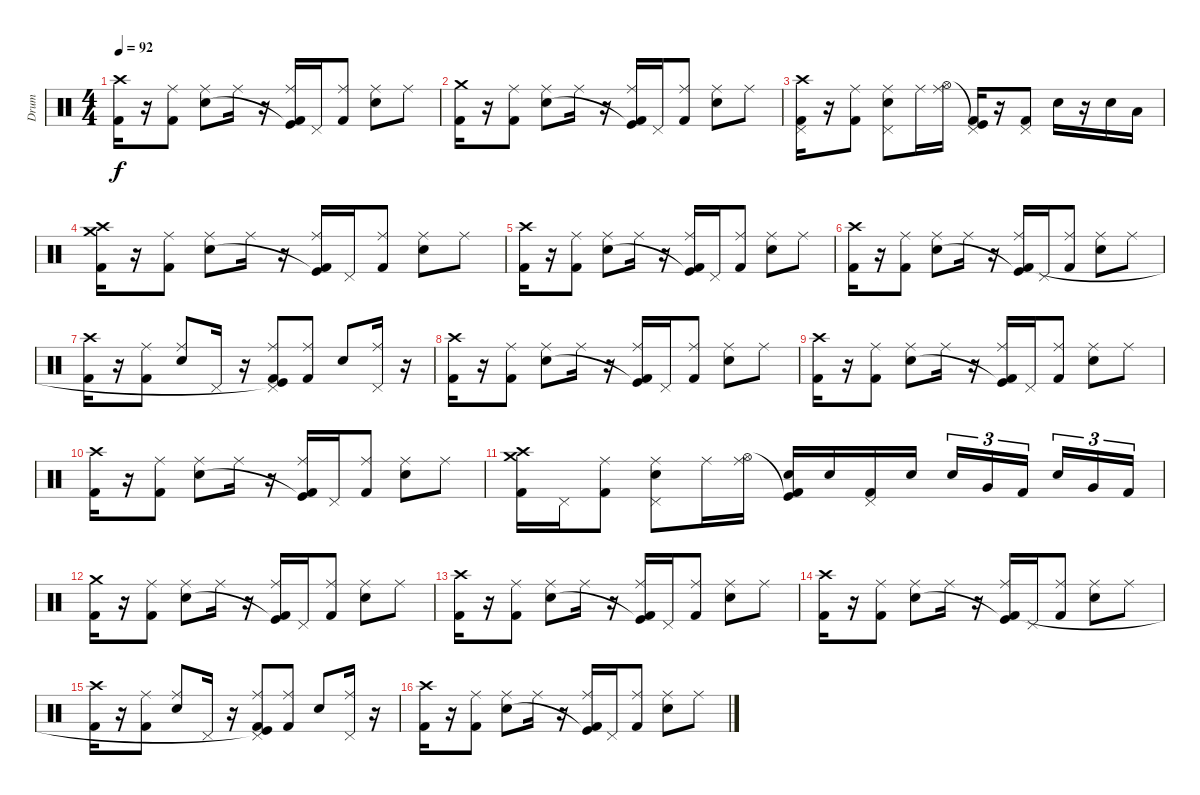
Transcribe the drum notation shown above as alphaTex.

\track ("Drum" "Drum") {instrument percussion}
\staff {score}
\articulation defaults
\ts (4 4)
\tempo 92
\clef neutral
\ks c
("Crash high (hit)" "Kick (hit) 2").16{dy f} r.16 ("Ride (middle)" "Kick (hit) 2").8 ("Ride (middle)" "Snare (hit) 2").8 "Ride (middle)".16 r.16 ("Ride (middle)" "Kick (hit)"{t} "Kick (hit) 2").16 "Pedal Hi-Hat (hit)".16 ("Ride (middle)" "Kick (hit) 2").8 ("Ride (middle)" "Snare (hit) 2").8 "Ride (middle)".8 |
("Crash medium (hit)" "Kick (hit) 2").16 r.16 ("Ride (middle)" "Kick (hit) 2").8 ("Ride (middle)" "Snare (hit) 2").8 "Ride (middle)".16 r.16 ("Ride (middle)" "Kick (hit)"{t} "Kick (hit) 2").16 "Pedal Hi-Hat (hit)".16 ("Ride (middle)" "Kick (hit) 2").8 ("Ride (middle)" "Snare (hit) 2").8 "Ride (middle)".8 |
("Crash high (hit)" "Pedal Hi-Hat (hit)" "Kick (hit) 2").16 r.16 ("Ride (middle)" "Kick (hit) 2").8 ("Ride (middle)" "Snare (hit) 2" "Pedal Hi-Hat (hit)").8 "Ride (middle)".16 ("Ride (middle)" "Hi-Hat (open)").16 ("Pedal Hi-Hat (hit)" "Kick (hit)"{t} "Kick (hit) 2").16 r.16 ("Pedal Hi-Hat (hit)" "Kick (hit) 2").8 "Snare (hit) 2".16 r.16 "Snare (hit) 2".16 "Low Tom (hit)".16 |
("Crash high (hit)" "Crash medium (hit)" "Kick (hit) 2").16 r.16 ("Ride (middle)" "Kick (hit) 2").8 ("Ride (middle)" "Snare (hit) 2").8 "Ride (middle)".16 r.16 ("Ride (middle)" "Kick (hit)"{t} "Kick (hit) 2").16 "Pedal Hi-Hat (hit)".16 ("Ride (middle)" "Kick (hit) 2").8 ("Ride (middle)" "Snare (hit) 2").8 "Ride (middle)".8 |
("Crash high (hit)" "Kick (hit) 2").16 r.16 ("Ride (middle)" "Kick (hit) 2").8 ("Ride (middle)" "Snare (hit) 2").8 "Ride (middle)".16 r.16 ("Ride (middle)" "Kick (hit)"{t} "Kick (hit) 2").16 "Pedal Hi-Hat (hit)".16 ("Ride (middle)" "Kick (hit) 2").8 ("Ride (middle)" "Snare (hit) 2").8 "Ride (middle)".8 |
("Crash high (hit)" "Kick (hit) 2").16 r.16 ("Ride (middle)" "Kick (hit) 2").8 ("Ride (middle)" "Snare (hit) 2").8 "Ride (middle)".16 r.16 ("Ride (middle)" "Kick (hit)"{t} "Kick (hit) 2").16 "Pedal Hi-Hat (hit)".16 ("Ride (middle)" "Kick (hit) 2").8 ("Ride (middle)" "Snare (hit) 2").8 "Ride (middle)".8 |
("Crash high (hit)" "Kick (hit) 2").16 r.16 ("Ride (middle)" "Kick (hit) 2").8 ("Ride (middle)" "Snare (hit) 2").8 "Pedal Hi-Hat (hit)".16 r.16 ("Ride (middle)" "Pedal Hi-Hat (hit)" "Kick (hit)"{t} "Kick (hit) 2").8 ("Ride (middle)" "Kick (hit) 2").8 "Snare (hit) 2".8 ("Ride (middle)" "Pedal Hi-Hat (hit)").16 r.16 |
("Crash high (hit)" "Kick (hit) 2").16 r.16 ("Ride (middle)" "Kick (hit) 2").8 ("Ride (middle)" "Snare (hit) 2").8 "Ride (middle)".16 r.16 ("Ride (middle)" "Kick (hit)"{t} "Kick (hit) 2").16 "Pedal Hi-Hat (hit)".16 ("Ride (middle)" "Kick (hit) 2").8 ("Ride (middle)" "Snare (hit) 2").8 "Ride (middle)".8 |
("Crash high (hit)" "Kick (hit) 2").16 r.16 ("Ride (middle)" "Kick (hit) 2").8 ("Ride (middle)" "Snare (hit) 2").8 "Ride (middle)".16 r.16 ("Ride (middle)" "Kick (hit)"{t} "Kick (hit) 2").16 "Pedal Hi-Hat (hit)".16 ("Ride (middle)" "Kick (hit) 2").8 ("Ride (middle)" "Snare (hit) 2").8 "Ride (middle)".8 |
("Crash high (hit)" "Kick (hit) 2").16 r.16 ("Ride (middle)" "Kick (hit) 2").8 ("Ride (middle)" "Snare (hit) 2").8 "Ride (middle)".16 r.16 ("Ride (middle)" "Kick (hit)"{t} "Kick (hit) 2").16 "Pedal Hi-Hat (hit)".16 ("Ride (middle)" "Kick (hit) 2").8 ("Ride (middle)" "Snare (hit) 2").8 "Ride (middle)".8 |
("Crash high (hit)" "Crash medium (hit)" "Kick (hit) 2").16 "Pedal Hi-Hat (hit)".16 ("Ride (middle)" "Kick (hit) 2").8 ("Ride (middle)" "Snare (hit) 2" "Pedal Hi-Hat (hit)").8 "Ride (middle)".16 ("Ride (middle)" "Hi-Hat (open)").16 ("Snare (hit) 2" "Kick (hit)"{t} "Kick (hit) 2").16 "Snare (hit) 2".16 ("Pedal Hi-Hat (hit)" "Kick (hit) 2").16 "Snare (hit) 2".16 "Snare (hit) 2".16{tu (3 2)} "Very Low Tom (hit)".16{tu (3 2)} "Kick (hit) 2".16{tu (3 2) beam splitsecondary} "Snare (hit) 2".16{tu (3 2)} "Very Low Tom (hit)".16{tu (3 2)} "Kick (hit) 2".16{tu (3 2)} |
("Crash medium (hit)" "Kick (hit) 2").16 r.16 ("Ride (middle)" "Kick (hit) 2").8 ("Ride (middle)" "Snare (hit) 2").8 "Ride (middle)".16 r.16 ("Ride (middle)" "Kick (hit)"{t} "Kick (hit) 2").16 "Pedal Hi-Hat (hit)".16 ("Ride (middle)" "Kick (hit) 2").8 ("Ride (middle)" "Snare (hit) 2").8 "Ride (middle)".8 |
("Crash high (hit)" "Kick (hit) 2").16 r.16 ("Ride (middle)" "Kick (hit) 2").8 ("Ride (middle)" "Snare (hit) 2").8 "Ride (middle)".16 r.16 ("Ride (middle)" "Kick (hit)"{t} "Kick (hit) 2").16 "Pedal Hi-Hat (hit)".16 ("Ride (middle)" "Kick (hit) 2").8 ("Ride (middle)" "Snare (hit) 2").8 "Ride (middle)".8 |
("Crash high (hit)" "Kick (hit) 2").16 r.16 ("Ride (middle)" "Kick (hit) 2").8 ("Ride (middle)" "Snare (hit) 2").8 "Ride (middle)".16 r.16 ("Ride (middle)" "Kick (hit)"{t} "Kick (hit) 2").16 "Pedal Hi-Hat (hit)".16 ("Ride (middle)" "Kick (hit) 2").8 ("Ride (middle)" "Snare (hit) 2").8 "Ride (middle)".8 |
("Crash high (hit)" "Kick (hit) 2").16 r.16 ("Ride (middle)" "Kick (hit) 2").8 ("Ride (middle)" "Snare (hit) 2").8 "Pedal Hi-Hat (hit)".16 r.16 ("Ride (middle)" "Pedal Hi-Hat (hit)" "Kick (hit)"{t} "Kick (hit) 2").8 ("Ride (middle)" "Kick (hit) 2").8 "Snare (hit) 2".8 ("Ride (middle)" "Pedal Hi-Hat (hit)").16 r.16 |
("Crash high (hit)" "Kick (hit) 2").16 r.16 ("Ride (middle)" "Kick (hit) 2").8 ("Ride (middle)" "Snare (hit) 2").8 "Ride (middle)".16 r.16 ("Ride (middle)" "Kick (hit)"{t} "Kick (hit) 2").16 "Pedal Hi-Hat (hit)".16 ("Ride (middle)" "Kick (hit) 2").8 ("Ride (middle)" "Snare (hit) 2").8 "Ride (middle)".8
